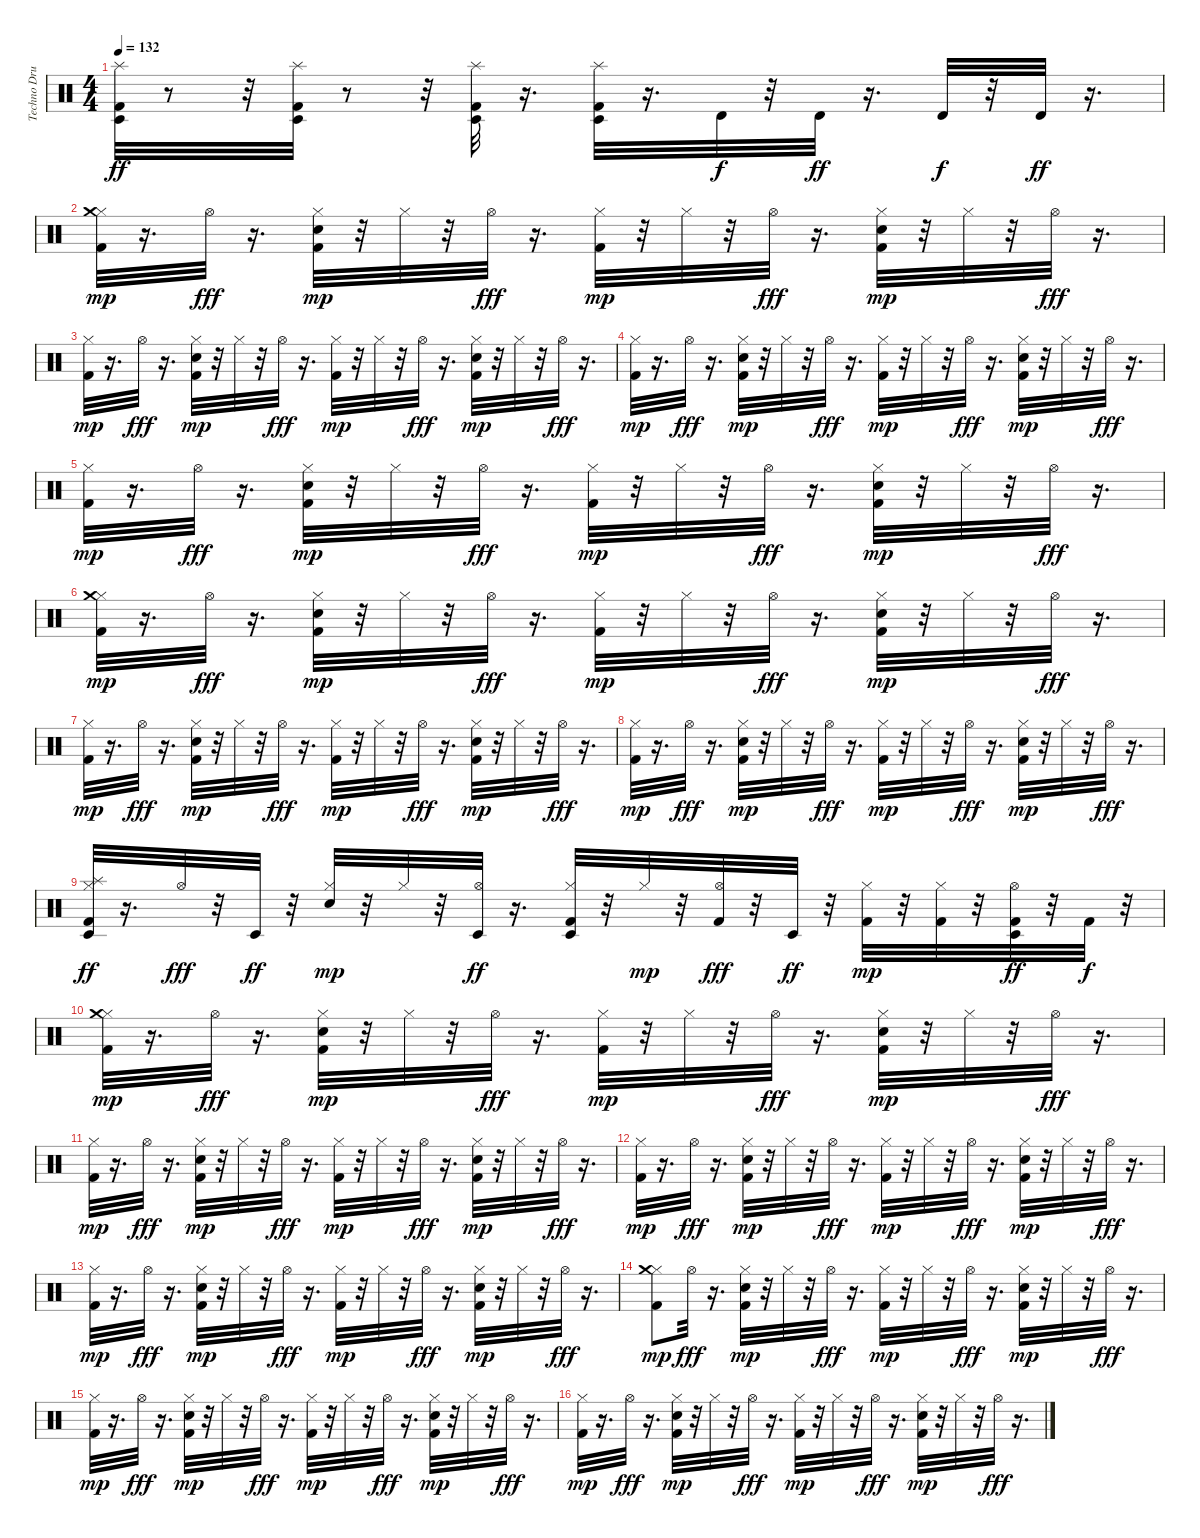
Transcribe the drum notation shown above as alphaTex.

\track ("Techno Drums" "Techno Dru") {instrument percussion}
\staff {score}
\articulation defaults
\ts (4 4)
\tempo 132
\clef neutral
\ks c
("Kick (hit) 2" "Timbale low (hit)" "Splash (hit)").32{dy ff} r.8 r.32 ("Kick (hit) 2" "Timbale low (hit)" "Splash (hit)").32 r.8 r.32 ("Kick (hit) 2" "Timbale low (hit)" "Splash (hit)").32 r.16{d} ("Timbale low (hit)" "Splash (hit)" "Kick (hit) 2").32 r.16{d} "Timbale high (hit)".32{dy f} r.32 "Timbale high (hit)".32{dy ff} r.16{d} "Timbale high (hit)".32{dy f} r.32 "Timbale high (hit)".32{dy ff} r.16{d} |
("Kick (hit) 2" "Hi-Hat (closed)" "Crash medium (hit)").32{dy mp} r.16{d} "Hi-Hat (open)".32{dy fff} r.16{d} ("Kick (hit) 2" "Hand Clap (hit)" "Hi-Hat (closed)").32{dy mp} r.32 "Hi-Hat (closed)".32 r.32 "Hi-Hat (open)".32{dy fff} r.16{d} ("Kick (hit) 2" "Hi-Hat (closed)").32{dy mp} r.32 "Hi-Hat (closed)".32 r.32 "Hi-Hat (open)".32{dy fff} r.16{d} ("Kick (hit) 2" "Hand Clap (hit)" "Hi-Hat (closed)").32{dy mp} r.32 "Hi-Hat (closed)".32 r.32 "Hi-Hat (open)".32{dy fff} r.16{d} |
("Kick (hit) 2" "Hi-Hat (closed)").32{dy mp} r.16{d} "Hi-Hat (open)".32{dy fff} r.16{d} ("Kick (hit) 2" "Hand Clap (hit)" "Hi-Hat (closed)").32{dy mp} r.32 "Hi-Hat (closed)".32 r.32 "Hi-Hat (open)".32{dy fff} r.16{d} ("Kick (hit) 2" "Hi-Hat (closed)").32{dy mp} r.32 "Hi-Hat (closed)".32 r.32 "Hi-Hat (open)".32{dy fff} r.16{d} ("Kick (hit) 2" "Hand Clap (hit)" "Hi-Hat (closed)").32{dy mp} r.32 "Hi-Hat (closed)".32 r.32 "Hi-Hat (open)".32{dy fff} r.16{d} |
("Kick (hit) 2" "Hi-Hat (closed)").32{dy mp} r.16{d} "Hi-Hat (open)".32{dy fff} r.16{d} ("Kick (hit) 2" "Hand Clap (hit)" "Hi-Hat (closed)").32{dy mp} r.32 "Hi-Hat (closed)".32 r.32 "Hi-Hat (open)".32{dy fff} r.16{d} ("Kick (hit) 2" "Hi-Hat (closed)").32{dy mp} r.32 "Hi-Hat (closed)".32 r.32 "Hi-Hat (open)".32{dy fff} r.16{d} ("Kick (hit) 2" "Hand Clap (hit)" "Hi-Hat (closed)").32{dy mp} r.32 "Hi-Hat (closed)".32 r.32 "Hi-Hat (open)".32{dy fff} r.16{d} |
("Kick (hit) 2" "Hi-Hat (closed)").32{dy mp} r.16{d} "Hi-Hat (open)".32{dy fff} r.16{d} ("Kick (hit) 2" "Hand Clap (hit)" "Hi-Hat (closed)").32{dy mp} r.32 "Hi-Hat (closed)".32 r.32 "Hi-Hat (open)".32{dy fff} r.16{d} ("Kick (hit) 2" "Hi-Hat (closed)").32{dy mp} r.32 "Hi-Hat (closed)".32 r.32 "Hi-Hat (open)".32{dy fff} r.16{d} ("Kick (hit) 2" "Hand Clap (hit)" "Hi-Hat (closed)").32{dy mp} r.32 "Hi-Hat (closed)".32 r.32 "Hi-Hat (open)".32{dy fff} r.16{d} |
("Kick (hit) 2" "Hi-Hat (closed)" "Crash medium (hit)").32{dy mp} r.16{d} "Hi-Hat (open)".32{dy fff} r.16{d} ("Kick (hit) 2" "Hand Clap (hit)" "Hi-Hat (closed)").32{dy mp} r.32 "Hi-Hat (closed)".32 r.32 "Hi-Hat (open)".32{dy fff} r.16{d} ("Kick (hit) 2" "Hi-Hat (closed)").32{dy mp} r.32 "Hi-Hat (closed)".32 r.32 "Hi-Hat (open)".32{dy fff} r.16{d} ("Kick (hit) 2" "Hand Clap (hit)" "Hi-Hat (closed)").32{dy mp} r.32 "Hi-Hat (closed)".32 r.32 "Hi-Hat (open)".32{dy fff} r.16{d} |
("Kick (hit) 2" "Hi-Hat (closed)").32{dy mp} r.16{d} "Hi-Hat (open)".32{dy fff} r.16{d} ("Kick (hit) 2" "Hand Clap (hit)" "Hi-Hat (closed)").32{dy mp} r.32 "Hi-Hat (closed)".32 r.32 "Hi-Hat (open)".32{dy fff} r.16{d} ("Kick (hit) 2" "Hi-Hat (closed)").32{dy mp} r.32 "Hi-Hat (closed)".32 r.32 "Hi-Hat (open)".32{dy fff} r.16{d} ("Kick (hit) 2" "Hand Clap (hit)" "Hi-Hat (closed)").32{dy mp} r.32 "Hi-Hat (closed)".32 r.32 "Hi-Hat (open)".32{dy fff} r.16{d} |
("Kick (hit) 2" "Hi-Hat (closed)").32{dy mp} r.16{d} "Hi-Hat (open)".32{dy fff} r.16{d} ("Kick (hit) 2" "Hand Clap (hit)" "Hi-Hat (closed)").32{dy mp} r.32 "Hi-Hat (closed)".32 r.32 "Hi-Hat (open)".32{dy fff} r.16{d} ("Kick (hit) 2" "Hi-Hat (closed)").32{dy mp} r.32 "Hi-Hat (closed)".32 r.32 "Hi-Hat (open)".32{dy fff} r.16{d} ("Kick (hit) 2" "Hand Clap (hit)" "Hi-Hat (closed)").32{dy mp} r.32 "Hi-Hat (closed)".32 r.32 "Hi-Hat (open)".32{dy fff} r.16{d} |
("Kick (hit) 2" "Hi-Hat (closed)" "Splash (hit)" "Timbale low (hit)").32{dy ff} r.16{d} "Hi-Hat (open)".32{dy fff} r.32 "Timbale low (hit)".32{dy ff} r.32 ("Hand Clap (hit)" "Hi-Hat (closed)").32{dy mp} r.32 "Hi-Hat (closed)".32 r.32 ("Hi-Hat (open)" "Timbale low (hit)").32{dy ff} r.16{d} ("Hi-Hat (closed)" "Kick (hit) 2" "Timbale low (hit)").32 r.32 "Hi-Hat (closed)".32{dy mp} r.32 ("Hi-Hat (open)" "Kick (hit) 2").32{dy fff} r.32 "Timbale low (hit)".32{dy ff} r.32 ("Hi-Hat (closed)" "Kick (hit) 2").32{dy mp} r.32 ("Hi-Hat (closed)" "Kick (hit) 2").32 r.32 ("Hi-Hat (open)" "Kick (hit) 2" "Timbale low (hit)").32{dy ff} r.32 "Kick (hit) 2".32{dy f} r.32 |
("Kick (hit) 2" "Hi-Hat (closed)" "Crash medium (hit)").32{dy mp} r.16{d} "Hi-Hat (open)".32{dy fff} r.16{d} ("Kick (hit) 2" "Hand Clap (hit)" "Hi-Hat (closed)").32{dy mp} r.32 "Hi-Hat (closed)".32 r.32 "Hi-Hat (open)".32{dy fff} r.16{d} ("Kick (hit) 2" "Hi-Hat (closed)").32{dy mp} r.32 "Hi-Hat (closed)".32 r.32 "Hi-Hat (open)".32{dy fff} r.16{d} ("Kick (hit) 2" "Hand Clap (hit)" "Hi-Hat (closed)").32{dy mp} r.32 "Hi-Hat (closed)".32 r.32 "Hi-Hat (open)".32{dy fff} r.16{d} |
("Kick (hit) 2" "Hi-Hat (closed)").32{dy mp} r.16{d} "Hi-Hat (open)".32{dy fff} r.16{d} ("Kick (hit) 2" "Hand Clap (hit)" "Hi-Hat (closed)").32{dy mp} r.32 "Hi-Hat (closed)".32 r.32 "Hi-Hat (open)".32{dy fff} r.16{d} ("Kick (hit) 2" "Hi-Hat (closed)").32{dy mp} r.32 "Hi-Hat (closed)".32 r.32 "Hi-Hat (open)".32{dy fff} r.16{d} ("Kick (hit) 2" "Hand Clap (hit)" "Hi-Hat (closed)").32{dy mp} r.32 "Hi-Hat (closed)".32 r.32 "Hi-Hat (open)".32{dy fff} r.16{d} |
("Kick (hit) 2" "Hi-Hat (closed)").32{dy mp} r.16{d} "Hi-Hat (open)".32{dy fff} r.16{d} ("Kick (hit) 2" "Hand Clap (hit)" "Hi-Hat (closed)").32{dy mp} r.32 "Hi-Hat (closed)".32 r.32 "Hi-Hat (open)".32{dy fff} r.16{d} ("Kick (hit) 2" "Hi-Hat (closed)").32{dy mp} r.32 "Hi-Hat (closed)".32 r.32 "Hi-Hat (open)".32{dy fff} r.16{d} ("Kick (hit) 2" "Hand Clap (hit)" "Hi-Hat (closed)").32{dy mp} r.32 "Hi-Hat (closed)".32 r.32 "Hi-Hat (open)".32{dy fff} r.16{d} |
("Kick (hit) 2" "Hi-Hat (closed)").32{dy mp} r.16{d} "Hi-Hat (open)".32{dy fff} r.16{d} ("Kick (hit) 2" "Hand Clap (hit)" "Hi-Hat (closed)").32{dy mp} r.32 "Hi-Hat (closed)".32 r.32 "Hi-Hat (open)".32{dy fff} r.16{d} ("Kick (hit) 2" "Hi-Hat (closed)").32{dy mp} r.32 "Hi-Hat (closed)".32 r.32 "Hi-Hat (open)".32{dy fff} r.16{d} ("Kick (hit) 2" "Hand Clap (hit)" "Hi-Hat (closed)").32{dy mp} r.32 "Hi-Hat (closed)".32 r.32 "Hi-Hat (open)".32{dy fff} r.16{d} |
("Kick (hit) 2" "Hi-Hat (closed)" "Crash medium (hit)").8{dy mp} "Hi-Hat (open)".32{dy fff} r.16{d} ("Kick (hit) 2" "Hand Clap (hit)" "Hi-Hat (closed)").32{dy mp} r.32 "Hi-Hat (closed)".32 r.32 "Hi-Hat (open)".32{dy fff} r.16{d} ("Kick (hit) 2" "Hi-Hat (closed)").32{dy mp} r.32 "Hi-Hat (closed)".32 r.32 "Hi-Hat (open)".32{dy fff} r.16{d} ("Kick (hit) 2" "Hand Clap (hit)" "Hi-Hat (closed)").32{dy mp} r.32 "Hi-Hat (closed)".32 r.32 "Hi-Hat (open)".32{dy fff} r.16{d} |
("Kick (hit) 2" "Hi-Hat (closed)").32{dy mp} r.16{d} "Hi-Hat (open)".32{dy fff} r.16{d} ("Kick (hit) 2" "Hand Clap (hit)" "Hi-Hat (closed)").32{dy mp} r.32 "Hi-Hat (closed)".32 r.32 "Hi-Hat (open)".32{dy fff} r.16{d} ("Kick (hit) 2" "Hi-Hat (closed)").32{dy mp} r.32 "Hi-Hat (closed)".32 r.32 "Hi-Hat (open)".32{dy fff} r.16{d} ("Kick (hit) 2" "Hand Clap (hit)" "Hi-Hat (closed)").32{dy mp} r.32 "Hi-Hat (closed)".32 r.32 "Hi-Hat (open)".32{dy fff} r.16{d} |
("Kick (hit) 2" "Hi-Hat (closed)").32{dy mp} r.16{d} "Hi-Hat (open)".32{dy fff} r.16{d} ("Kick (hit) 2" "Hand Clap (hit)" "Hi-Hat (closed)").32{dy mp} r.32 "Hi-Hat (closed)".32 r.32 "Hi-Hat (open)".32{dy fff} r.16{d} ("Kick (hit) 2" "Hi-Hat (closed)").32{dy mp} r.32 "Hi-Hat (closed)".32 r.32 "Hi-Hat (open)".32{dy fff} r.16{d} ("Kick (hit) 2" "Hand Clap (hit)" "Hi-Hat (closed)").32{dy mp} r.32 "Hi-Hat (closed)".32 r.32 "Hi-Hat (open)".32{dy fff} r.16{d}
